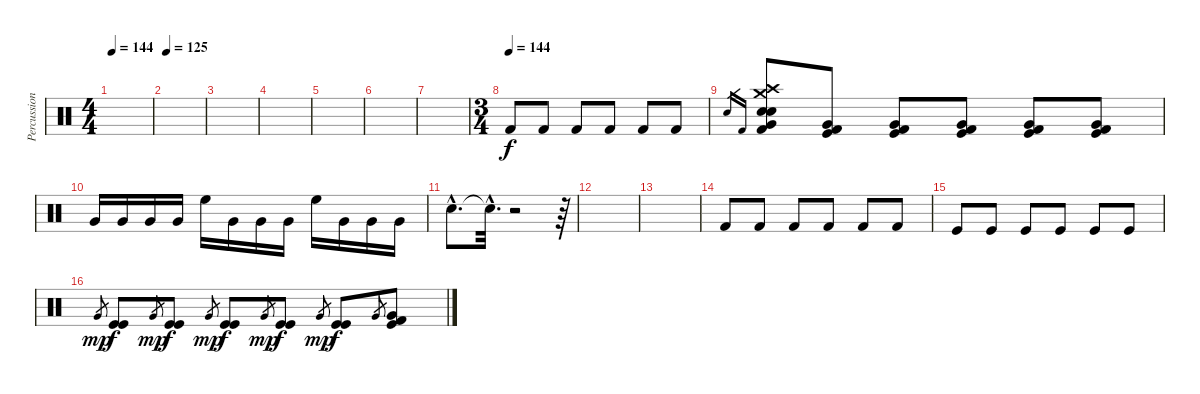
\track ("Percussion" "Percussion") {instrument percussion}
\staff {score}
\articulation defaults
\ts (4 4)
\tempo 144
\clef neutral
\ks c
|
\tempo (125 0.020833333333333332)
|
|
|
|
|
|
\ts (3 4)
\tempo (144)
"Kick (hit) 2".8{volume 11} "Kick (hit) 2".8 "Kick (hit) 2".8 "Kick (hit) 2".8 "Kick (hit) 2".8 "Kick (hit) 2".8 |
"Snare (hit) 2".16{gr} "Kick (hit) 2".16{gr} ("Crash medium (hit)" "Crash high (hit)" "Snare (hit) 2" "Snare (hit) 2" "Kick (hit) 2" "Very Low Tom (hit)").8{volume 10} ("Kick (hit) 2" "Kick (hit)" "Very Low Tom (hit)").8 ("Kick (hit) 2" "Kick (hit)" "Very Low Tom (hit)").8 ("Kick (hit) 2" "Kick (hit)" "Very Low Tom (hit)").8 ("Kick (hit) 2" "Kick (hit)" "Very Low Tom (hit)").8 ("Kick (hit) 2" "Kick (hit)" "Very Low Tom (hit)").8 |
"Very Low Tom (hit)".16 "Very Low Tom (hit)".16 "Very Low Tom (hit)".16 "Very Low Tom (hit)".16 "High Floor Tom (hit)".16 "Very Low Tom (hit)".16 "Very Low Tom (hit)".16 "Very Low Tom (hit)".16 "High Floor Tom (hit)".16 "Very Low Tom (hit)".16 "Very Low Tom (hit)".16 "Very Low Tom (hit)".16 |
"Snare (hit) 2"{hac}.8{d} "Snare (hit)"{hac t}.32{d} r.2 r.64 |
|
|
"Kick (hit) 2".8 "Kick (hit) 2".8 "Kick (hit) 2".8 "Kick (hit) 2".8 "Kick (hit) 2".8 "Kick (hit) 2".8 |
"Kick (hit)".8 "Kick (hit)".8 "Kick (hit)".8 "Kick (hit)".8 "Kick (hit)".8 "Kick (hit)".8 |
"Very Low Tom (hit)".8{gr dy mp} ("Kick (hit)" "Kick (hit)").8{dy f} "Very Low Tom (hit)".8{gr dy mp} ("Kick (hit)" "Kick (hit)").8{dy f} "Very Low Tom (hit)".8{gr dy mp} ("Kick (hit)" "Kick (hit)").8{dy f} "Very Low Tom (hit)".8{gr dy mp} ("Kick (hit)" "Kick (hit)").8{dy f} "Very Low Tom (hit)".8{gr dy mp} ("Kick (hit)" "Kick (hit)").8{dy f} "Very Low Tom (hit)".8{gr} ("Kick (hit)" "Kick (hit) 2" "Very Low Tom (hit)").8
